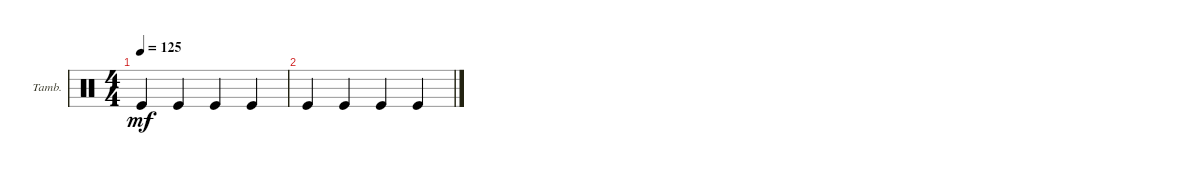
\defaultSystemsLayout 4
\bracketExtendMode groupsimilarinstruments
\firstSystemTrackNameOrientation horizontal
\otherSystemsTrackNameOrientation horizontal
\track ("Tambourine" "Tamb.") {instrument percussion}
\staff {score}
\articulation defaults
\ts (4 4)
\tempo 125
\clef neutral
\scale
0.333333
\ks c "Kick (hit)".4{dy mf} "Kick (hit)".4 "Kick (hit)".4 "Kick (hit)".4
|
\scale
0.333333 "Kick (hit)".4 "Kick (hit)".4 "Kick (hit)".4 "Kick (hit)".4 |
\scale
0.333333 |
\scale
0.333333 |
\scale
0.333333 |
\scale
0.333333 |
\scale
0.333333 |
\scale
0.333333
